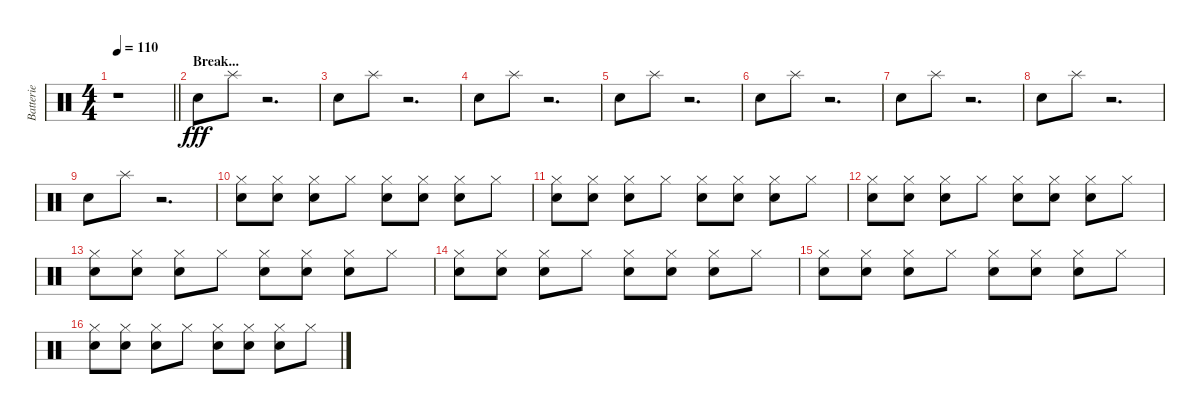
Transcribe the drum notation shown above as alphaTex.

\track ("Batterie" "Batterie") {instrument percussion}
\staff {score}
\articulation defaults
\ts (4 4)
\tempo 110
\clef neutral
\barLineRight lightlight
\ks c
r.1{dy fff} |
\section ("" "Break...")
"Snare (hit) 2".8 "Splash (hit)".8 r.2{d} |
"Snare (hit) 2".8 "Splash (hit)".8 r.2{d} |
"Snare (hit) 2".8 "Splash (hit)".8 r.2{d} |
"Snare (hit) 2".8 "Splash (hit)".8 r.2{d} |
"Snare (hit) 2".8 "Splash (hit)".8 r.2{d} |
"Snare (hit) 2".8 "Splash (hit)".8 r.2{d} |
"Snare (hit) 2".8 "Splash (hit)".8 r.2{d} |
"Snare (hit) 2".8 "Splash (hit)".8 r.2{d} |
("Hi-Hat (closed)" "Electric Snare (hit)").8 ("Hi-Hat (closed)" "Electric Snare (hit)").8 ("Hi-Hat (closed)" "Electric Snare (hit)").8 "Hi-Hat (closed)".8 ("Hi-Hat (closed)" "Electric Snare (hit)").8 ("Hi-Hat (closed)" "Electric Snare (hit)").8 ("Hi-Hat (closed)" "Electric Snare (hit)").8 "Hi-Hat (closed)".8 |
("Hi-Hat (closed)" "Electric Snare (hit)").8 ("Hi-Hat (closed)" "Electric Snare (hit)").8 ("Hi-Hat (closed)" "Electric Snare (hit)").8 "Hi-Hat (closed)".8 ("Hi-Hat (closed)" "Electric Snare (hit)").8 ("Hi-Hat (closed)" "Electric Snare (hit)").8 ("Hi-Hat (closed)" "Electric Snare (hit)").8 "Hi-Hat (closed)".8 |
("Hi-Hat (closed)" "Electric Snare (hit)").8 ("Hi-Hat (closed)" "Electric Snare (hit)").8 ("Hi-Hat (closed)" "Electric Snare (hit)").8 "Hi-Hat (closed)".8 ("Hi-Hat (closed)" "Electric Snare (hit)").8 ("Hi-Hat (closed)" "Electric Snare (hit)").8 ("Hi-Hat (closed)" "Electric Snare (hit)").8 "Hi-Hat (closed)".8 |
("Hi-Hat (closed)" "Electric Snare (hit)").8 ("Hi-Hat (closed)" "Electric Snare (hit)").8 ("Hi-Hat (closed)" "Electric Snare (hit)").8 "Hi-Hat (closed)".8 ("Hi-Hat (closed)" "Electric Snare (hit)").8 ("Hi-Hat (closed)" "Electric Snare (hit)").8 ("Hi-Hat (closed)" "Electric Snare (hit)").8 "Hi-Hat (closed)".8 |
("Hi-Hat (closed)" "Electric Snare (hit)").8 ("Hi-Hat (closed)" "Electric Snare (hit)").8 ("Hi-Hat (closed)" "Electric Snare (hit)").8 "Hi-Hat (closed)".8 ("Hi-Hat (closed)" "Electric Snare (hit)").8 ("Hi-Hat (closed)" "Electric Snare (hit)").8 ("Hi-Hat (closed)" "Electric Snare (hit)").8 "Hi-Hat (closed)".8 |
("Hi-Hat (closed)" "Electric Snare (hit)").8 ("Hi-Hat (closed)" "Electric Snare (hit)").8 ("Hi-Hat (closed)" "Electric Snare (hit)").8 "Hi-Hat (closed)".8 ("Hi-Hat (closed)" "Electric Snare (hit)").8 ("Hi-Hat (closed)" "Electric Snare (hit)").8 ("Hi-Hat (closed)" "Electric Snare (hit)").8 "Hi-Hat (closed)".8 |
("Hi-Hat (closed)" "Electric Snare (hit)").8 ("Hi-Hat (closed)" "Electric Snare (hit)").8 ("Hi-Hat (closed)" "Electric Snare (hit)").8 "Hi-Hat (closed)".8 ("Hi-Hat (closed)" "Electric Snare (hit)").8 ("Hi-Hat (closed)" "Electric Snare (hit)").8 ("Hi-Hat (closed)" "Electric Snare (hit)").8 "Hi-Hat (closed)".8
